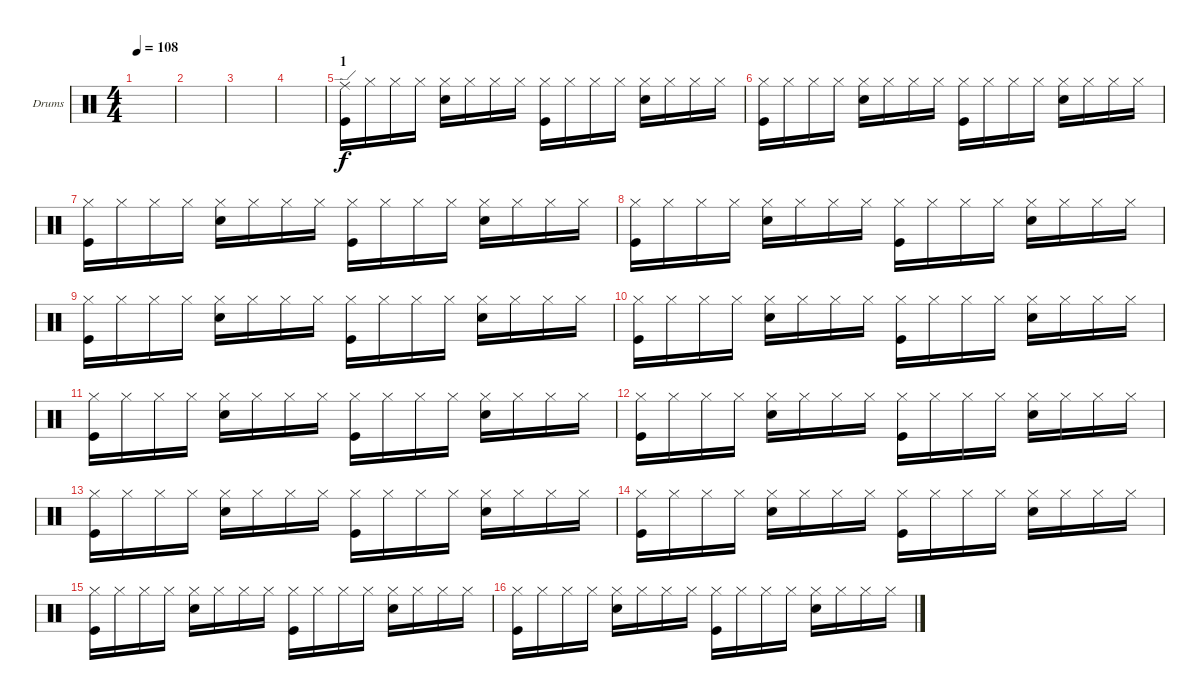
\defaultSystemsLayout 4
\bracketExtendMode groupsimilarinstruments
\firstSystemTrackNameOrientation horizontal
\otherSystemsTrackNameOrientation horizontal
\track ("Drumkit" "Drums") {instrument percussion}
\staff {score}
\articulation defaults
\ts (4 4)
\tempo 108
\clef neutral
\scale
0.472222
\ks c
|
\scale
0.263889 |
\scale
0.263889 |
\scale
0.333333 |
\section ("" "1")
\scale
0.333333 ("Ride (edge)" "Kick (hit)").16 "Hi-Hat (closed)".16 "Hi-Hat (closed)".16 "Hi-Hat (closed)".16 ("Hi-Hat (closed)" "Snare (hit) 2").16 "Hi-Hat (closed)".16 "Hi-Hat (closed)".16 "Hi-Hat (closed)".16 ("Hi-Hat (closed)" "Kick (hit)").16 "Hi-Hat (closed)".16 "Hi-Hat (closed)".16 "Hi-Hat (closed)".16 ("Hi-Hat (closed)" "Snare (hit) 2").16 "Hi-Hat (closed)".16 "Hi-Hat (closed)".16 "Hi-Hat (closed)".16 |
\scale
0.333333 ("Hi-Hat (closed)" "Kick (hit)").16 "Hi-Hat (closed)".16 "Hi-Hat (closed)".16 "Hi-Hat (closed)".16 ("Hi-Hat (closed)" "Snare (hit) 2").16 "Hi-Hat (closed)".16 "Hi-Hat (closed)".16 "Hi-Hat (closed)".16 ("Hi-Hat (closed)" "Kick (hit)").16 "Hi-Hat (closed)".16 "Hi-Hat (closed)".16 "Hi-Hat (closed)".16 ("Hi-Hat (closed)" "Snare (hit) 2").16 "Hi-Hat (closed)".16 "Hi-Hat (closed)".16 "Hi-Hat (closed)".16 |
\scale
0.333333 ("Hi-Hat (closed)" "Kick (hit)").16 "Hi-Hat (closed)".16 "Hi-Hat (closed)".16 "Hi-Hat (closed)".16 ("Hi-Hat (closed)" "Snare (hit) 2").16 "Hi-Hat (closed)".16 "Hi-Hat (closed)".16 "Hi-Hat (closed)".16 ("Hi-Hat (closed)" "Kick (hit)").16 "Hi-Hat (closed)".16 "Hi-Hat (closed)".16 "Hi-Hat (closed)".16 ("Hi-Hat (closed)" "Snare (hit) 2").16 "Hi-Hat (closed)".16 "Hi-Hat (closed)".16 "Hi-Hat (closed)".16 |
\scale
0.333333 ("Hi-Hat (closed)" "Kick (hit)").16 "Hi-Hat (closed)".16 "Hi-Hat (closed)".16 "Hi-Hat (closed)".16 ("Hi-Hat (closed)" "Snare (hit) 2").16 "Hi-Hat (closed)".16 "Hi-Hat (closed)".16 "Hi-Hat (closed)".16 ("Hi-Hat (closed)" "Kick (hit)").16 "Hi-Hat (closed)".16 "Hi-Hat (closed)".16 "Hi-Hat (closed)".16 ("Hi-Hat (closed)" "Snare (hit) 2").16 "Hi-Hat (closed)".16 "Hi-Hat (closed)".16 "Hi-Hat (closed)".16 |
\scale
0.333333 ("Hi-Hat (closed)" "Kick (hit)").16 "Hi-Hat (closed)".16 "Hi-Hat (closed)".16 "Hi-Hat (closed)".16 ("Hi-Hat (closed)" "Snare (hit) 2").16 "Hi-Hat (closed)".16 "Hi-Hat (closed)".16 "Hi-Hat (closed)".16 ("Hi-Hat (closed)" "Kick (hit)").16 "Hi-Hat (closed)".16 "Hi-Hat (closed)".16 "Hi-Hat (closed)".16 ("Hi-Hat (closed)" "Snare (hit) 2").16 "Hi-Hat (closed)".16 "Hi-Hat (closed)".16 "Hi-Hat (closed)".16 |
\scale
0.333333 ("Hi-Hat (closed)" "Kick (hit)").16 "Hi-Hat (closed)".16 "Hi-Hat (closed)".16 "Hi-Hat (closed)".16 ("Hi-Hat (closed)" "Snare (hit) 2").16 "Hi-Hat (closed)".16 "Hi-Hat (closed)".16 "Hi-Hat (closed)".16 ("Hi-Hat (closed)" "Kick (hit)").16 "Hi-Hat (closed)".16 "Hi-Hat (closed)".16 "Hi-Hat (closed)".16 ("Hi-Hat (closed)" "Snare (hit) 2").16 "Hi-Hat (closed)".16 "Hi-Hat (closed)".16 "Hi-Hat (closed)".16 |
\scale
0.333333 ("Hi-Hat (closed)" "Kick (hit)").16 "Hi-Hat (closed)".16 "Hi-Hat (closed)".16 "Hi-Hat (closed)".16 ("Hi-Hat (closed)" "Snare (hit) 2").16 "Hi-Hat (closed)".16 "Hi-Hat (closed)".16 "Hi-Hat (closed)".16 ("Hi-Hat (closed)" "Kick (hit)").16 "Hi-Hat (closed)".16 "Hi-Hat (closed)".16 "Hi-Hat (closed)".16 ("Hi-Hat (closed)" "Snare (hit) 2").16 "Hi-Hat (closed)".16 "Hi-Hat (closed)".16 "Hi-Hat (closed)".16 |
\scale
0.333333 ("Hi-Hat (closed)" "Kick (hit)").16 "Hi-Hat (closed)".16 "Hi-Hat (closed)".16 "Hi-Hat (closed)".16 ("Hi-Hat (closed)" "Snare (hit) 2").16 "Hi-Hat (closed)".16 "Hi-Hat (closed)".16 "Hi-Hat (closed)".16 ("Hi-Hat (closed)" "Kick (hit)").16 "Hi-Hat (closed)".16 "Hi-Hat (closed)".16 "Hi-Hat (closed)".16 ("Hi-Hat (closed)" "Snare (hit) 2").16 "Hi-Hat (closed)".16 "Hi-Hat (closed)".16 "Hi-Hat (closed)".16 |
\scale
0.333333 ("Hi-Hat (closed)" "Kick (hit)").16 "Hi-Hat (closed)".16 "Hi-Hat (closed)".16 "Hi-Hat (closed)".16 ("Hi-Hat (closed)" "Snare (hit) 2").16 "Hi-Hat (closed)".16 "Hi-Hat (closed)".16 "Hi-Hat (closed)".16 ("Hi-Hat (closed)" "Kick (hit)").16 "Hi-Hat (closed)".16 "Hi-Hat (closed)".16 "Hi-Hat (closed)".16 ("Hi-Hat (closed)" "Snare (hit) 2").16 "Hi-Hat (closed)".16 "Hi-Hat (closed)".16 "Hi-Hat (closed)".16 |
\scale
0.333333 ("Hi-Hat (closed)" "Kick (hit)").16 "Hi-Hat (closed)".16 "Hi-Hat (closed)".16 "Hi-Hat (closed)".16 ("Hi-Hat (closed)" "Snare (hit) 2").16 "Hi-Hat (closed)".16 "Hi-Hat (closed)".16 "Hi-Hat (closed)".16 ("Hi-Hat (closed)" "Kick (hit)").16 "Hi-Hat (closed)".16 "Hi-Hat (closed)".16 "Hi-Hat (closed)".16 ("Hi-Hat (closed)" "Snare (hit) 2").16 "Hi-Hat (closed)".16 "Hi-Hat (closed)".16 "Hi-Hat (closed)".16 |
\scale
0.333333 ("Hi-Hat (closed)" "Kick (hit)").16 "Hi-Hat (closed)".16 "Hi-Hat (closed)".16 "Hi-Hat (closed)".16 ("Hi-Hat (closed)" "Snare (hit) 2").16 "Hi-Hat (closed)".16 "Hi-Hat (closed)".16 "Hi-Hat (closed)".16 ("Hi-Hat (closed)" "Kick (hit)").16 "Hi-Hat (closed)".16 "Hi-Hat (closed)".16 "Hi-Hat (closed)".16 ("Hi-Hat (closed)" "Snare (hit) 2").16 "Hi-Hat (closed)".16 "Hi-Hat (closed)".16 "Hi-Hat (closed)".16 |
\scale
0.333333 ("Hi-Hat (closed)" "Kick (hit)").16 "Hi-Hat (closed)".16 "Hi-Hat (closed)".16 "Hi-Hat (closed)".16 ("Hi-Hat (closed)" "Snare (hit) 2").16 "Hi-Hat (closed)".16 "Hi-Hat (closed)".16 "Hi-Hat (closed)".16 ("Hi-Hat (closed)" "Kick (hit)").16 "Hi-Hat (closed)".16 "Hi-Hat (closed)".16 "Hi-Hat (closed)".16 ("Hi-Hat (closed)" "Snare (hit) 2").16 "Hi-Hat (closed)".16 "Hi-Hat (closed)".16 "Hi-Hat (closed)".16
